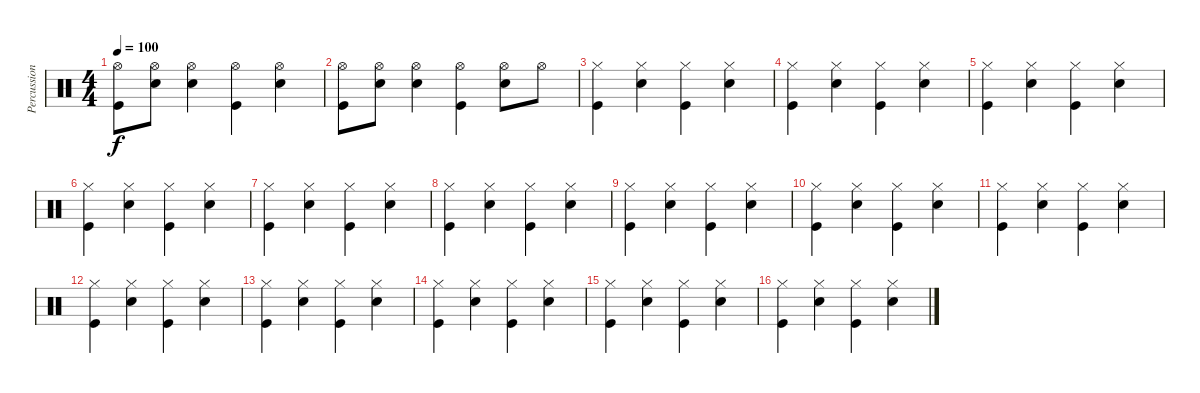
\track ("Percussion" "Percussion") {instrument percussion}
\staff {score}
\articulation defaults
\ts (4 4)
\tempo 100
\clef neutral
\ks c
("Hi-Hat (open)" "Kick (hit)").8{dy f} ("Hi-Hat (open)" "Snare (hit) 2").8 ("Hi-Hat (open)" "Snare (hit) 2").4 ("Hi-Hat (open)" "Kick (hit)").4 ("Hi-Hat (open)" "Snare (hit) 2").4 |
("Hi-Hat (open)" "Kick (hit)").8 ("Hi-Hat (open)" "Snare (hit) 2").8 ("Hi-Hat (open)" "Snare (hit) 2").4 ("Hi-Hat (open)" "Kick (hit)").4 ("Hi-Hat (open)" "Snare (hit) 2").8 "Hi-Hat (open)".8 |
("Hi-Hat (closed)" "Kick (hit)").4 ("Hi-Hat (closed)" "Snare (hit) 2").4 ("Hi-Hat (closed)" "Kick (hit)").4 ("Hi-Hat (closed)" "Snare (hit) 2").4 |
("Hi-Hat (closed)" "Kick (hit)").4 ("Hi-Hat (closed)" "Snare (hit) 2").4 ("Hi-Hat (closed)" "Kick (hit)").4 ("Hi-Hat (closed)" "Snare (hit) 2").4 |
("Hi-Hat (closed)" "Kick (hit)").4 ("Hi-Hat (closed)" "Snare (hit) 2").4 ("Hi-Hat (closed)" "Kick (hit)").4 ("Hi-Hat (closed)" "Snare (hit) 2").4 |
("Hi-Hat (closed)" "Kick (hit)").4 ("Hi-Hat (closed)" "Snare (hit) 2").4 ("Hi-Hat (closed)" "Kick (hit)").4 ("Hi-Hat (closed)" "Snare (hit) 2").4 |
("Hi-Hat (closed)" "Kick (hit)").4 ("Hi-Hat (closed)" "Snare (hit) 2").4 ("Hi-Hat (closed)" "Kick (hit)").4 ("Hi-Hat (closed)" "Snare (hit) 2").4 |
("Hi-Hat (closed)" "Kick (hit)").4 ("Hi-Hat (closed)" "Snare (hit) 2").4 ("Hi-Hat (closed)" "Kick (hit)").4 ("Hi-Hat (closed)" "Snare (hit) 2").4 |
("Hi-Hat (closed)" "Kick (hit)").4 ("Hi-Hat (closed)" "Snare (hit) 2").4 ("Hi-Hat (closed)" "Kick (hit)").4 ("Hi-Hat (closed)" "Snare (hit) 2").4 |
("Hi-Hat (closed)" "Kick (hit)").4 ("Hi-Hat (closed)" "Snare (hit) 2").4 ("Hi-Hat (closed)" "Kick (hit)").4 ("Hi-Hat (closed)" "Snare (hit) 2").4 |
("Hi-Hat (closed)" "Kick (hit)").4 ("Hi-Hat (closed)" "Snare (hit) 2").4 ("Hi-Hat (closed)" "Kick (hit)").4 ("Hi-Hat (closed)" "Snare (hit) 2").4 |
("Hi-Hat (closed)" "Kick (hit)").4 ("Hi-Hat (closed)" "Snare (hit) 2").4 ("Hi-Hat (closed)" "Kick (hit)").4 ("Hi-Hat (closed)" "Snare (hit) 2").4 |
("Hi-Hat (closed)" "Kick (hit)").4 ("Hi-Hat (closed)" "Snare (hit) 2").4 ("Hi-Hat (closed)" "Kick (hit)").4 ("Hi-Hat (closed)" "Snare (hit) 2").4 |
("Hi-Hat (closed)" "Kick (hit)").4 ("Hi-Hat (closed)" "Snare (hit) 2").4 ("Hi-Hat (closed)" "Kick (hit)").4 ("Hi-Hat (closed)" "Snare (hit) 2").4 |
("Hi-Hat (closed)" "Kick (hit)").4 ("Hi-Hat (closed)" "Snare (hit) 2").4 ("Hi-Hat (closed)" "Kick (hit)").4 ("Hi-Hat (closed)" "Snare (hit) 2").4 |
("Hi-Hat (closed)" "Kick (hit)").4 ("Hi-Hat (closed)" "Snare (hit) 2").4 ("Hi-Hat (closed)" "Kick (hit)").4 ("Hi-Hat (closed)" "Snare (hit) 2").4
